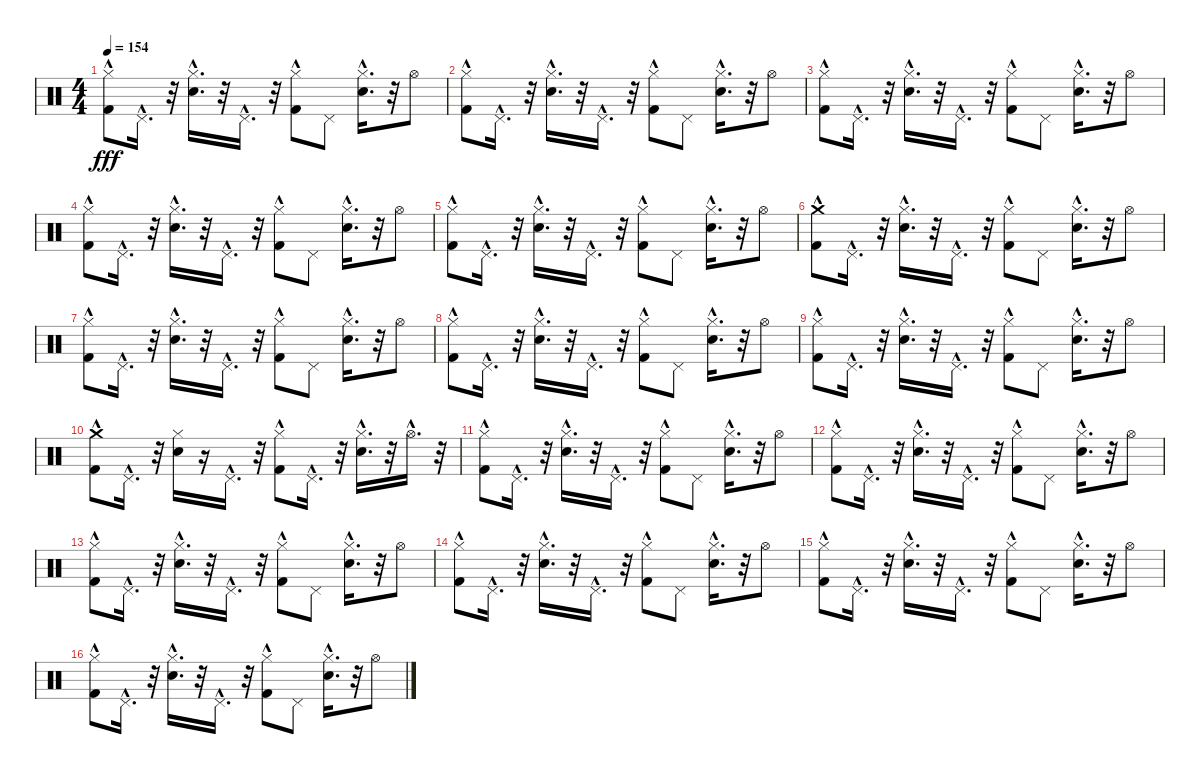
\track "" {instrument percussion}
\staff {score}
\articulation defaults
\ts (4 4)
\tempo 154
\clef neutral
\ks c
("Kick (hit) 2" "Hi-Hat (closed)"{hac}).8{dy fff} "Pedal Hi-Hat (hit)"{hac}.16{d} r.32 ("Electric Snare (hit)"{hac} "Hi-Hat (closed)").16{d} r.32 "Pedal Hi-Hat (hit)"{hac}.16{d} r.32 ("Hi-Hat (closed)"{hac} "Kick (hit) 2").8 "Pedal Hi-Hat (hit)".8 ("Electric Snare (hit)"{hac} "Hi-Hat (closed)").16{d} r.32 "Hi-Hat (open)".8 |
("Kick (hit) 2" "Hi-Hat (closed)"{hac}).8 "Pedal Hi-Hat (hit)"{hac}.16{d} r.32 ("Electric Snare (hit)"{hac} "Hi-Hat (closed)").16{d} r.32 "Pedal Hi-Hat (hit)"{hac}.16{d} r.32 ("Hi-Hat (closed)"{hac} "Kick (hit) 2").8 "Pedal Hi-Hat (hit)".8 ("Electric Snare (hit)"{hac} "Hi-Hat (closed)").16{d} r.32 "Hi-Hat (open)".8 |
("Kick (hit) 2" "Hi-Hat (closed)"{hac}).8 "Pedal Hi-Hat (hit)"{hac}.16{d} r.32 ("Electric Snare (hit)"{hac} "Hi-Hat (closed)").16{d} r.32 "Pedal Hi-Hat (hit)"{hac}.16{d} r.32 ("Hi-Hat (closed)"{hac} "Kick (hit) 2").8 "Pedal Hi-Hat (hit)".8 ("Electric Snare (hit)"{hac} "Hi-Hat (closed)").16{d} r.32 "Hi-Hat (open)".8 |
("Kick (hit) 2" "Hi-Hat (closed)"{hac}).8 "Pedal Hi-Hat (hit)"{hac}.16{d} r.32 ("Electric Snare (hit)"{hac} "Hi-Hat (closed)").16{d} r.32 "Pedal Hi-Hat (hit)"{hac}.16{d} r.32 ("Hi-Hat (closed)"{hac} "Kick (hit) 2").8 "Pedal Hi-Hat (hit)".8 ("Electric Snare (hit)"{hac} "Hi-Hat (closed)").16{d} r.32 "Hi-Hat (open)".8 |
("Kick (hit) 2" "Hi-Hat (closed)"{hac}).8 "Pedal Hi-Hat (hit)"{hac}.16{d} r.32 ("Electric Snare (hit)"{hac} "Hi-Hat (closed)").16{d} r.32 "Pedal Hi-Hat (hit)"{hac}.16{d} r.32 ("Hi-Hat (closed)"{hac} "Kick (hit) 2").8 "Pedal Hi-Hat (hit)".8 ("Electric Snare (hit)"{hac} "Hi-Hat (closed)").16{d} r.32 "Hi-Hat (open)".8 |
("Kick (hit) 2" "Crash medium (hit)"{hac}).8 "Pedal Hi-Hat (hit)"{hac}.16{d} r.32 ("Electric Snare (hit)"{hac} "Hi-Hat (closed)").16{d} r.32 "Pedal Hi-Hat (hit)"{hac}.16{d} r.32 ("Hi-Hat (closed)"{hac} "Kick (hit) 2").8 "Pedal Hi-Hat (hit)".8 ("Electric Snare (hit)"{hac} "Hi-Hat (closed)").16{d} r.32 "Hi-Hat (open)".8 |
("Kick (hit) 2" "Hi-Hat (closed)"{hac}).8 "Pedal Hi-Hat (hit)"{hac}.16{d} r.32 ("Electric Snare (hit)"{hac} "Hi-Hat (closed)").16{d} r.32 "Pedal Hi-Hat (hit)"{hac}.16{d} r.32 ("Hi-Hat (closed)"{hac} "Kick (hit) 2").8 "Pedal Hi-Hat (hit)".8 ("Electric Snare (hit)"{hac} "Hi-Hat (closed)").16{d} r.32 "Hi-Hat (open)".8 |
("Kick (hit) 2" "Hi-Hat (closed)"{hac}).8 "Pedal Hi-Hat (hit)"{hac}.16{d} r.32 ("Electric Snare (hit)"{hac} "Hi-Hat (closed)").16{d} r.32 "Pedal Hi-Hat (hit)"{hac}.16{d} r.32 ("Hi-Hat (closed)"{hac} "Kick (hit) 2").8 "Pedal Hi-Hat (hit)".8 ("Electric Snare (hit)"{hac} "Hi-Hat (closed)").16{d} r.32 "Hi-Hat (open)".8 |
("Kick (hit) 2" "Hi-Hat (closed)"{hac}).8 "Pedal Hi-Hat (hit)"{hac}.16{d} r.32 ("Electric Snare (hit)"{hac} "Hi-Hat (closed)").16{d} r.32 "Pedal Hi-Hat (hit)"{hac}.16{d} r.32 ("Hi-Hat (closed)"{hac} "Kick (hit) 2").8 "Pedal Hi-Hat (hit)".8 ("Electric Snare (hit)"{hac} "Hi-Hat (closed)").16{d} r.32 "Hi-Hat (open)".8 |
("Kick (hit) 2" "Crash medium (hit)"{hac}).8 "Pedal Hi-Hat (hit)"{hac}.16{d} r.32 ("Electric Snare (hit)" "Hi-Hat (closed)").16 r.16 "Pedal Hi-Hat (hit)"{hac}.16{d} r.32 ("Hi-Hat (closed)"{hac} "Kick (hit) 2").8 "Pedal Hi-Hat (hit)"{hac}.16{d} r.32 ("Electric Snare (hit)"{hac} "Hi-Hat (closed)"{hac}).16{d} r.32 "Hi-Hat (open)"{hac}.16{d} r.32 |
("Kick (hit) 2" "Hi-Hat (closed)"{hac}).8 "Pedal Hi-Hat (hit)"{hac}.16{d} r.32 ("Electric Snare (hit)"{hac} "Hi-Hat (closed)").16{d} r.32 "Pedal Hi-Hat (hit)"{hac}.16{d} r.32 ("Hi-Hat (closed)"{hac} "Kick (hit) 2").8 "Pedal Hi-Hat (hit)".8 ("Electric Snare (hit)"{hac} "Hi-Hat (closed)").16{d} r.32 "Hi-Hat (open)".8 |
("Kick (hit) 2" "Hi-Hat (closed)"{hac}).8 "Pedal Hi-Hat (hit)"{hac}.16{d} r.32 ("Electric Snare (hit)"{hac} "Hi-Hat (closed)").16{d} r.32 "Pedal Hi-Hat (hit)"{hac}.16{d} r.32 ("Hi-Hat (closed)"{hac} "Kick (hit) 2").8 "Pedal Hi-Hat (hit)".8 ("Electric Snare (hit)"{hac} "Hi-Hat (closed)").16{d} r.32 "Hi-Hat (open)".8 |
("Kick (hit) 2" "Hi-Hat (closed)"{hac}).8 "Pedal Hi-Hat (hit)"{hac}.16{d} r.32 ("Electric Snare (hit)"{hac} "Hi-Hat (closed)").16{d} r.32 "Pedal Hi-Hat (hit)"{hac}.16{d} r.32 ("Hi-Hat (closed)"{hac} "Kick (hit) 2").8 "Pedal Hi-Hat (hit)".8 ("Electric Snare (hit)"{hac} "Hi-Hat (closed)").16{d} r.32 "Hi-Hat (open)".8 |
("Kick (hit) 2" "Hi-Hat (closed)"{hac}).8 "Pedal Hi-Hat (hit)"{hac}.16{d} r.32 ("Electric Snare (hit)"{hac} "Hi-Hat (closed)").16{d} r.32 "Pedal Hi-Hat (hit)"{hac}.16{d} r.32 ("Hi-Hat (closed)"{hac} "Kick (hit) 2").8 "Pedal Hi-Hat (hit)".8 ("Electric Snare (hit)"{hac} "Hi-Hat (closed)").16{d} r.32 "Hi-Hat (open)".8 |
("Kick (hit) 2" "Hi-Hat (closed)"{hac}).8 "Pedal Hi-Hat (hit)"{hac}.16{d} r.32 ("Electric Snare (hit)"{hac} "Hi-Hat (closed)").16{d} r.32 "Pedal Hi-Hat (hit)"{hac}.16{d} r.32 ("Hi-Hat (closed)"{hac} "Kick (hit) 2").8 "Pedal Hi-Hat (hit)".8 ("Electric Snare (hit)"{hac} "Hi-Hat (closed)").16{d} r.32 "Hi-Hat (open)".8 |
("Kick (hit) 2" "Hi-Hat (closed)"{hac}).8 "Pedal Hi-Hat (hit)"{hac}.16{d} r.32 ("Electric Snare (hit)"{hac} "Hi-Hat (closed)").16{d} r.32 "Pedal Hi-Hat (hit)"{hac}.16{d} r.32 ("Hi-Hat (closed)"{hac} "Kick (hit) 2").8 "Pedal Hi-Hat (hit)".8 ("Electric Snare (hit)"{hac} "Hi-Hat (closed)").16{d} r.32 "Hi-Hat (open)".8
